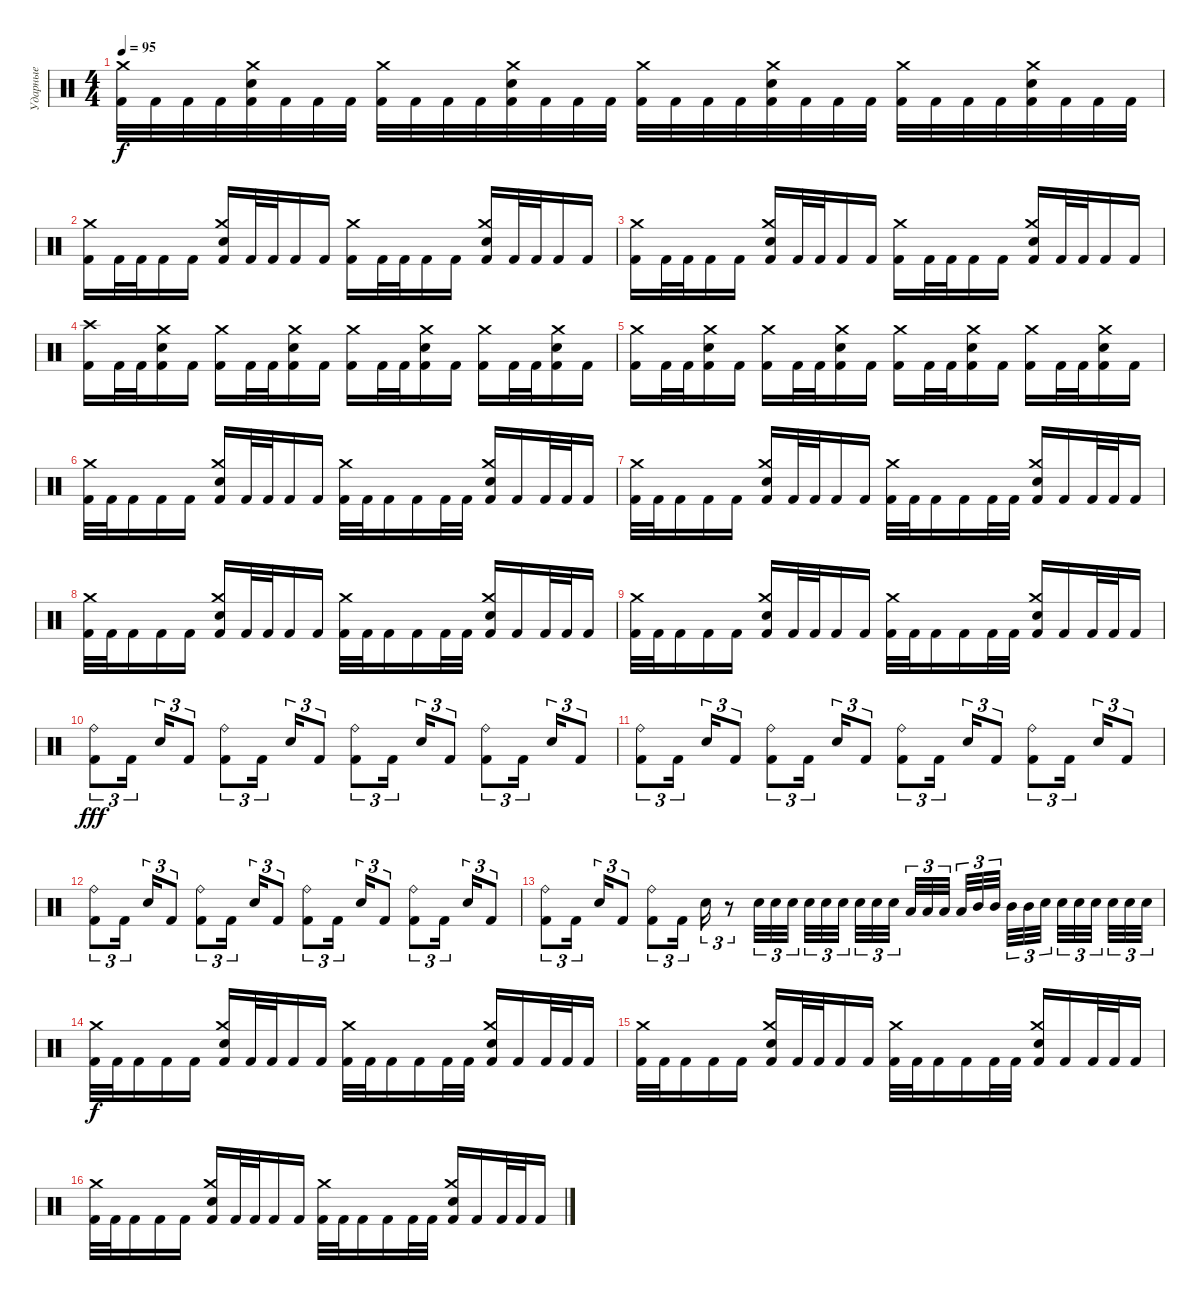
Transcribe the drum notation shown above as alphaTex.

\track ("Ударные" "Ударные") {instrument percussion}
\staff {score}
\articulation defaults
\ts (4 4)
\tempo 95
\clef neutral
\ks c
("Kick (hit) 2" "Crash medium (hit)").32{dy f} "Kick (hit) 2".32 "Kick (hit) 2".32 "Kick (hit) 2".32 ("Kick (hit) 2" "Electric Snare (hit)" "Crash medium (hit)").32 "Kick (hit) 2".32 "Kick (hit) 2".32 "Kick (hit) 2".32 ("Kick (hit) 2" "Crash medium (hit)").32 "Kick (hit) 2".32 "Kick (hit) 2".32 "Kick (hit) 2".32 ("Kick (hit) 2" "Electric Snare (hit)" "Crash medium (hit)").32 "Kick (hit) 2".32 "Kick (hit) 2".32 "Kick (hit) 2".32 ("Kick (hit) 2" "Crash medium (hit)").32 "Kick (hit) 2".32 "Kick (hit) 2".32 "Kick (hit) 2".32 ("Kick (hit) 2" "Electric Snare (hit)" "Crash medium (hit)").32 "Kick (hit) 2".32 "Kick (hit) 2".32 "Kick (hit) 2".32 ("Kick (hit) 2" "Crash medium (hit)").32 "Kick (hit) 2".32 "Kick (hit) 2".32 "Kick (hit) 2".32 ("Kick (hit) 2" "Electric Snare (hit)" "Crash medium (hit)").32 "Kick (hit) 2".32 "Kick (hit) 2".32 "Kick (hit) 2".32 |
("Crash medium (hit)" "Kick (hit) 2").16 "Kick (hit) 2".32 "Kick (hit) 2".32 "Kick (hit) 2".16 "Kick (hit) 2".16 ("Crash medium (hit)" "Kick (hit) 2" "Electric Snare (hit)").16 "Kick (hit) 2".32 "Kick (hit) 2".32 "Kick (hit) 2".16 "Kick (hit) 2".16 ("Crash medium (hit)" "Kick (hit) 2").16 "Kick (hit) 2".32 "Kick (hit) 2".32 "Kick (hit) 2".16 "Kick (hit) 2".16 ("Crash medium (hit)" "Kick (hit) 2" "Electric Snare (hit)").16 "Kick (hit) 2".32 "Kick (hit) 2".32 "Kick (hit) 2".16 "Kick (hit) 2".16 |
("Crash medium (hit)" "Kick (hit) 2").16 "Kick (hit) 2".32 "Kick (hit) 2".32 "Kick (hit) 2".16 "Kick (hit) 2".16 ("Crash medium (hit)" "Kick (hit) 2" "Electric Snare (hit)").16 "Kick (hit) 2".32 "Kick (hit) 2".32 "Kick (hit) 2".16 "Kick (hit) 2".16 ("Crash medium (hit)" "Kick (hit) 2").16 "Kick (hit) 2".32 "Kick (hit) 2".32 "Kick (hit) 2".16 "Kick (hit) 2".16 ("Crash medium (hit)" "Kick (hit) 2" "Electric Snare (hit)").16 "Kick (hit) 2".32 "Kick (hit) 2".32 "Kick (hit) 2".16 "Kick (hit) 2".16 |
("Crash high (hit)" "Kick (hit) 2").16 "Kick (hit) 2".32 "Kick (hit) 2".32 ("Crash medium (hit)" "Kick (hit) 2" "Electric Snare (hit)").16 "Kick (hit) 2".16 ("Crash medium (hit)" "Kick (hit) 2").16 "Kick (hit) 2".32 "Kick (hit) 2".32 ("Crash medium (hit)" "Kick (hit) 2" "Electric Snare (hit)").16 "Kick (hit) 2".16 ("Crash medium (hit)" "Kick (hit) 2").16 "Kick (hit) 2".32 "Kick (hit) 2".32 ("Crash medium (hit)" "Kick (hit) 2" "Electric Snare (hit)").16 "Kick (hit) 2".16 ("Crash medium (hit)" "Kick (hit) 2").16 "Kick (hit) 2".32 "Kick (hit) 2".32 ("Crash medium (hit)" "Kick (hit) 2" "Electric Snare (hit)").16 "Kick (hit) 2".16 |
("Crash medium (hit)" "Kick (hit) 2").16 "Kick (hit) 2".32 "Kick (hit) 2".32 ("Crash medium (hit)" "Kick (hit) 2" "Electric Snare (hit)").16 "Kick (hit) 2".16 ("Crash medium (hit)" "Kick (hit) 2").16 "Kick (hit) 2".32 "Kick (hit) 2".32 ("Crash medium (hit)" "Kick (hit) 2" "Electric Snare (hit)").16 "Kick (hit) 2".16 ("Crash medium (hit)" "Kick (hit) 2").16 "Kick (hit) 2".32 "Kick (hit) 2".32 ("Crash medium (hit)" "Kick (hit) 2" "Electric Snare (hit)").16 "Kick (hit) 2".16 ("Crash medium (hit)" "Kick (hit) 2").16 "Kick (hit) 2".32 "Kick (hit) 2".32 ("Crash medium (hit)" "Kick (hit) 2" "Electric Snare (hit)").16 "Kick (hit) 2".16 |
("Crash medium (hit)" "Kick (hit) 2").32 "Kick (hit) 2".32 "Kick (hit) 2".16 "Kick (hit) 2".16 "Kick (hit) 2".16 ("Electric Snare (hit)" "Kick (hit) 2" "Crash medium (hit)").16 "Kick (hit) 2".32 "Kick (hit) 2".32 "Kick (hit) 2".16 "Kick (hit) 2".16 ("Crash medium (hit)" "Kick (hit) 2").32 "Kick (hit) 2".32 "Kick (hit) 2".16 "Kick (hit) 2".16 "Kick (hit) 2".32 "Kick (hit) 2".32 ("Electric Snare (hit)" "Kick (hit) 2" "Crash medium (hit)").16 "Kick (hit) 2".16 "Kick (hit) 2".32 "Kick (hit) 2".32 "Kick (hit) 2".16 |
("Crash medium (hit)" "Kick (hit) 2").32 "Kick (hit) 2".32 "Kick (hit) 2".16 "Kick (hit) 2".16 "Kick (hit) 2".16 ("Electric Snare (hit)" "Kick (hit) 2" "Crash medium (hit)").16 "Kick (hit) 2".32 "Kick (hit) 2".32 "Kick (hit) 2".16 "Kick (hit) 2".16 ("Crash medium (hit)" "Kick (hit) 2").32 "Kick (hit) 2".32 "Kick (hit) 2".16 "Kick (hit) 2".16 "Kick (hit) 2".32 "Kick (hit) 2".32 ("Electric Snare (hit)" "Kick (hit) 2" "Crash medium (hit)").16 "Kick (hit) 2".16 "Kick (hit) 2".32 "Kick (hit) 2".32 "Kick (hit) 2".16 |
("Crash medium (hit)" "Kick (hit) 2").32 "Kick (hit) 2".32 "Kick (hit) 2".16 "Kick (hit) 2".16 "Kick (hit) 2".16 ("Electric Snare (hit)" "Kick (hit) 2" "Crash medium (hit)").16 "Kick (hit) 2".32 "Kick (hit) 2".32 "Kick (hit) 2".16 "Kick (hit) 2".16 ("Crash medium (hit)" "Kick (hit) 2").32 "Kick (hit) 2".32 "Kick (hit) 2".16 "Kick (hit) 2".16 "Kick (hit) 2".32 "Kick (hit) 2".32 ("Electric Snare (hit)" "Kick (hit) 2" "Crash medium (hit)").16 "Kick (hit) 2".16 "Kick (hit) 2".32 "Kick (hit) 2".32 "Kick (hit) 2".16 |
("Crash medium (hit)" "Kick (hit) 2").32 "Kick (hit) 2".32 "Kick (hit) 2".16 "Kick (hit) 2".16 "Kick (hit) 2".16 ("Electric Snare (hit)" "Kick (hit) 2" "Crash medium (hit)").16 "Kick (hit) 2".32 "Kick (hit) 2".32 "Kick (hit) 2".16 "Kick (hit) 2".16 ("Crash medium (hit)" "Kick (hit) 2").32 "Kick (hit) 2".32 "Kick (hit) 2".16 "Kick (hit) 2".16 "Kick (hit) 2".32 "Kick (hit) 2".32 ("Electric Snare (hit)" "Kick (hit) 2" "Crash medium (hit)").16 "Kick (hit) 2".16 "Kick (hit) 2".32 "Kick (hit) 2".32 "Kick (hit) 2".16 |
("Kick (hit) 2" "Ride (bell)").8{tu (3 2) dy fff} "Kick (hit) 2".16{tu (3 2) beam splitsecondary} "Electric Snare (hit)".16{tu (3 2)} "Kick (hit) 2".8{tu (3 2)} ("Kick (hit) 2" "Ride (bell)").8{tu (3 2)} "Kick (hit) 2".16{tu (3 2) beam splitsecondary} "Electric Snare (hit)".16{tu (3 2)} "Kick (hit) 2".8{tu (3 2)} ("Kick (hit) 2" "Ride (bell)").8{tu (3 2)} "Kick (hit) 2".16{tu (3 2) beam splitsecondary} "Electric Snare (hit)".16{tu (3 2)} "Kick (hit) 2".8{tu (3 2)} ("Kick (hit) 2" "Ride (bell)").8{tu (3 2)} "Kick (hit) 2".16{tu (3 2) beam splitsecondary} "Electric Snare (hit)".16{tu (3 2)} "Kick (hit) 2".8{tu (3 2)} |
("Kick (hit) 2" "Ride (bell)").8{tu (3 2)} "Kick (hit) 2".16{tu (3 2) beam splitsecondary} "Electric Snare (hit)".16{tu (3 2)} "Kick (hit) 2".8{tu (3 2)} ("Kick (hit) 2" "Ride (bell)").8{tu (3 2)} "Kick (hit) 2".16{tu (3 2) beam splitsecondary} "Electric Snare (hit)".16{tu (3 2)} "Kick (hit) 2".8{tu (3 2)} ("Kick (hit) 2" "Ride (bell)").8{tu (3 2)} "Kick (hit) 2".16{tu (3 2) beam splitsecondary} "Electric Snare (hit)".16{tu (3 2)} "Kick (hit) 2".8{tu (3 2)} ("Kick (hit) 2" "Ride (bell)").8{tu (3 2)} "Kick (hit) 2".16{tu (3 2) beam splitsecondary} "Electric Snare (hit)".16{tu (3 2)} "Kick (hit) 2".8{tu (3 2)} |
("Kick (hit) 2" "Ride (bell)").8{tu (3 2)} "Kick (hit) 2".16{tu (3 2) beam splitsecondary} "Electric Snare (hit)".16{tu (3 2)} "Kick (hit) 2".8{tu (3 2)} ("Kick (hit) 2" "Ride (bell)").8{tu (3 2)} "Kick (hit) 2".16{tu (3 2) beam splitsecondary} "Electric Snare (hit)".16{tu (3 2)} "Kick (hit) 2".8{tu (3 2)} ("Kick (hit) 2" "Ride (bell)").8{tu (3 2)} "Kick (hit) 2".16{tu (3 2) beam splitsecondary} "Electric Snare (hit)".16{tu (3 2)} "Kick (hit) 2".8{tu (3 2)} ("Kick (hit) 2" "Ride (bell)").8{tu (3 2)} "Kick (hit) 2".16{tu (3 2) beam splitsecondary} "Electric Snare (hit)".16{tu (3 2)} "Kick (hit) 2".8{tu (3 2)} |
("Kick (hit) 2" "Ride (bell)").8{tu (3 2)} "Kick (hit) 2".16{tu (3 2) beam splitsecondary} "Electric Snare (hit)".16{tu (3 2)} "Kick (hit) 2".8{tu (3 2)} ("Kick (hit) 2" "Ride (bell)").8{tu (3 2)} "Kick (hit) 2".16{tu (3 2)} "Electric Snare (hit)".16{tu (3 2)} r.8{tu (3 2)} "Electric Snare (hit)".32{tu (3 2)} "Electric Snare (hit)".32{tu (3 2)} "Electric Snare (hit)".32{tu (3 2) beam splitsecondary} "Electric Snare (hit)".32{tu (3 2)} "Electric Snare (hit)".32{tu (3 2)} "Electric Snare (hit)".32{tu (3 2) beam splitsecondary} "Electric Snare (hit)".32{tu (3 2)} "Electric Snare (hit)".32{tu (3 2)} "Electric Snare (hit)".32{tu (3 2) beam splitsecondary} "Low Tom (hit)".32{tu (3 2)} "Low Tom (hit)".32{tu (3 2)} "Low Tom (hit)".32{tu (3 2)} "Low Tom (hit)".32{tu (3 2)} "Mid Tom (hit)".32{tu (3 2)} "Mid Tom (hit)".32{tu (3 2) beam splitsecondary} "Mid Tom (hit)".32{tu (3 2)} "Mid Tom (hit)".32{tu (3 2)} "Electric Snare (hit)".32{tu (3 2) beam splitsecondary} "Electric Snare (hit)".32{tu (3 2)} "Electric Snare (hit)".32{tu (3 2)} "Electric Snare (hit)".32{tu (3 2) beam splitsecondary} "Electric Snare (hit)".32{tu (3 2)} "Electric Snare (hit)".32{tu (3 2)} "Electric Snare (hit)".32{tu (3 2)} |
("Crash medium (hit)" "Kick (hit) 2").32{dy f} "Kick (hit) 2".32 "Kick (hit) 2".16 "Kick (hit) 2".16 "Kick (hit) 2".16 ("Electric Snare (hit)" "Kick (hit) 2" "Crash medium (hit)").16 "Kick (hit) 2".32 "Kick (hit) 2".32 "Kick (hit) 2".16 "Kick (hit) 2".16 ("Crash medium (hit)" "Kick (hit) 2").32 "Kick (hit) 2".32 "Kick (hit) 2".16 "Kick (hit) 2".16 "Kick (hit) 2".32 "Kick (hit) 2".32 ("Electric Snare (hit)" "Kick (hit) 2" "Crash medium (hit)").16 "Kick (hit) 2".16 "Kick (hit) 2".32 "Kick (hit) 2".32 "Kick (hit) 2".16 |
("Crash medium (hit)" "Kick (hit) 2").32 "Kick (hit) 2".32 "Kick (hit) 2".16 "Kick (hit) 2".16 "Kick (hit) 2".16 ("Electric Snare (hit)" "Kick (hit) 2" "Crash medium (hit)").16 "Kick (hit) 2".32 "Kick (hit) 2".32 "Kick (hit) 2".16 "Kick (hit) 2".16 ("Crash medium (hit)" "Kick (hit) 2").32 "Kick (hit) 2".32 "Kick (hit) 2".16 "Kick (hit) 2".16 "Kick (hit) 2".32 "Kick (hit) 2".32 ("Electric Snare (hit)" "Kick (hit) 2" "Crash medium (hit)").16 "Kick (hit) 2".16 "Kick (hit) 2".32 "Kick (hit) 2".32 "Kick (hit) 2".16 |
("Crash medium (hit)" "Kick (hit) 2").32 "Kick (hit) 2".32 "Kick (hit) 2".16 "Kick (hit) 2".16 "Kick (hit) 2".16 ("Electric Snare (hit)" "Kick (hit) 2" "Crash medium (hit)").16 "Kick (hit) 2".32 "Kick (hit) 2".32 "Kick (hit) 2".16 "Kick (hit) 2".16 ("Crash medium (hit)" "Kick (hit) 2").32 "Kick (hit) 2".32 "Kick (hit) 2".16 "Kick (hit) 2".16 "Kick (hit) 2".32 "Kick (hit) 2".32 ("Electric Snare (hit)" "Kick (hit) 2" "Crash medium (hit)").16 "Kick (hit) 2".16 "Kick (hit) 2".32 "Kick (hit) 2".32 "Kick (hit) 2".16
